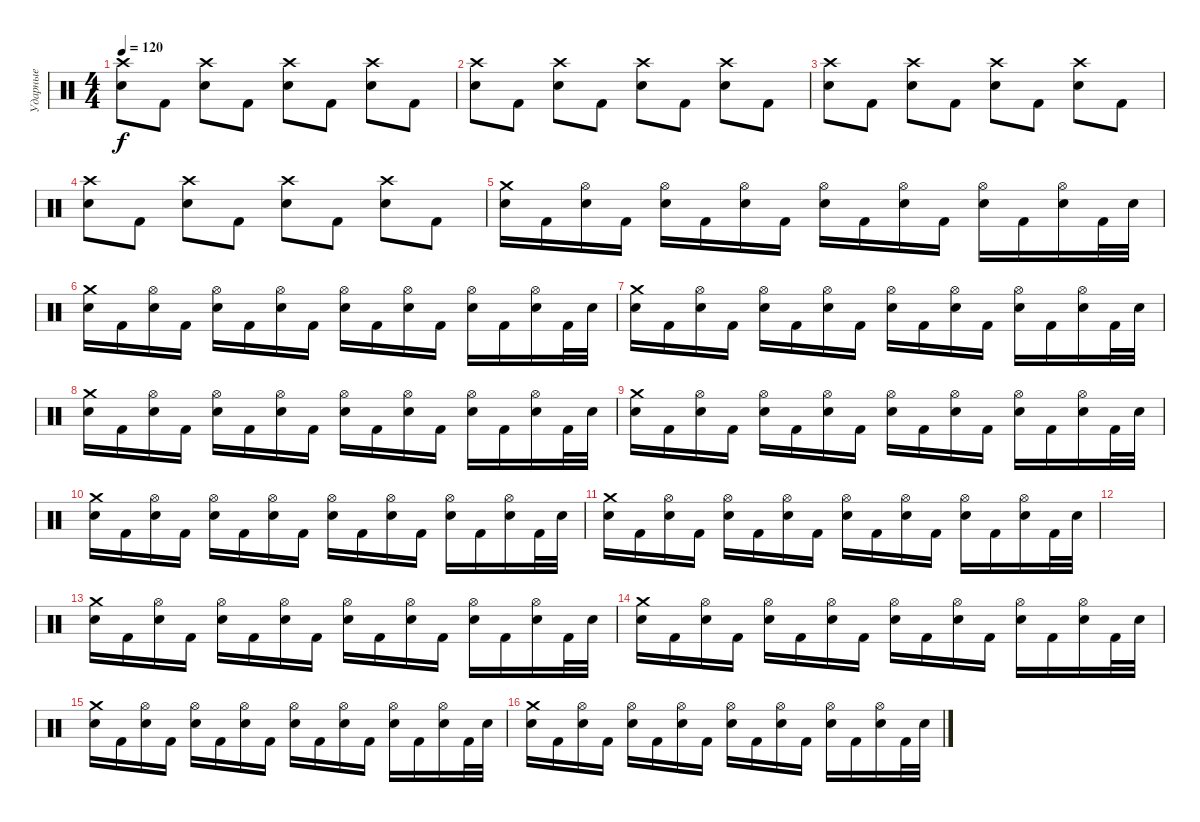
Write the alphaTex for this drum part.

\track ("Ударные" "Ударные") {instrument percussion}
\staff {score}
\articulation defaults
\ts (4 4)
\tempo 120
\clef neutral
\ks c
("Electric Snare (hit)" "Crash high (hit)").8{dy f} "Kick (hit) 2".8 ("Electric Snare (hit)" "Crash high (hit)").8 "Kick (hit) 2".8 ("Electric Snare (hit)" "Crash high (hit)").8 "Kick (hit) 2".8 ("Electric Snare (hit)" "Crash high (hit)").8 "Kick (hit) 2".8 |
("Electric Snare (hit)" "Crash high (hit)").8 "Kick (hit) 2".8 ("Electric Snare (hit)" "Crash high (hit)").8 "Kick (hit) 2".8 ("Electric Snare (hit)" "Crash high (hit)").8 "Kick (hit) 2".8 ("Electric Snare (hit)" "Crash high (hit)").8 "Kick (hit) 2".8 |
("Electric Snare (hit)" "Crash high (hit)").8 "Kick (hit) 2".8 ("Electric Snare (hit)" "Crash high (hit)").8 "Kick (hit) 2".8 ("Electric Snare (hit)" "Crash high (hit)").8 "Kick (hit) 2".8 ("Electric Snare (hit)" "Crash high (hit)").8 "Kick (hit) 2".8 |
("Electric Snare (hit)" "Crash high (hit)").8 "Kick (hit) 2".8 ("Electric Snare (hit)" "Crash high (hit)").8 "Kick (hit) 2".8 ("Electric Snare (hit)" "Crash high (hit)").8 "Kick (hit) 2".8 ("Electric Snare (hit)" "Crash high (hit)").8 "Kick (hit) 2".8 |
("Crash medium (hit)" "Electric Snare (hit)").16 "Kick (hit) 2".16 ("Hi-Hat (open)" "Electric Snare (hit)").16 "Kick (hit) 2".16 ("Hi-Hat (open)" "Electric Snare (hit)").16 "Kick (hit) 2".16 ("Hi-Hat (open)" "Electric Snare (hit)").16 "Kick (hit) 2".16 ("Hi-Hat (open)" "Electric Snare (hit)").16 "Kick (hit) 2".16 ("Hi-Hat (open)" "Electric Snare (hit)").16 "Kick (hit) 2".16 ("Hi-Hat (open)" "Electric Snare (hit)").16 "Kick (hit) 2".16 ("Hi-Hat (open)" "Electric Snare (hit)").16 "Kick (hit) 2".32 "Electric Snare (hit)".32 |
("Crash medium (hit)" "Electric Snare (hit)").16 "Kick (hit) 2".16 ("Hi-Hat (open)" "Electric Snare (hit)").16 "Kick (hit) 2".16 ("Hi-Hat (open)" "Electric Snare (hit)").16 "Kick (hit) 2".16 ("Hi-Hat (open)" "Electric Snare (hit)").16 "Kick (hit) 2".16 ("Hi-Hat (open)" "Electric Snare (hit)").16 "Kick (hit) 2".16 ("Hi-Hat (open)" "Electric Snare (hit)").16 "Kick (hit) 2".16 ("Hi-Hat (open)" "Electric Snare (hit)").16 "Kick (hit) 2".16 ("Hi-Hat (open)" "Electric Snare (hit)").16 "Kick (hit) 2".32 "Electric Snare (hit)".32 |
("Crash medium (hit)" "Electric Snare (hit)").16 "Kick (hit) 2".16 ("Hi-Hat (open)" "Electric Snare (hit)").16 "Kick (hit) 2".16 ("Hi-Hat (open)" "Electric Snare (hit)").16 "Kick (hit) 2".16 ("Hi-Hat (open)" "Electric Snare (hit)").16 "Kick (hit) 2".16 ("Hi-Hat (open)" "Electric Snare (hit)").16 "Kick (hit) 2".16 ("Hi-Hat (open)" "Electric Snare (hit)").16 "Kick (hit) 2".16 ("Hi-Hat (open)" "Electric Snare (hit)").16 "Kick (hit) 2".16 ("Hi-Hat (open)" "Electric Snare (hit)").16 "Kick (hit) 2".32 "Electric Snare (hit)".32 |
("Crash medium (hit)" "Electric Snare (hit)").16 "Kick (hit) 2".16 ("Hi-Hat (open)" "Electric Snare (hit)").16 "Kick (hit) 2".16 ("Hi-Hat (open)" "Electric Snare (hit)").16 "Kick (hit) 2".16 ("Hi-Hat (open)" "Electric Snare (hit)").16 "Kick (hit) 2".16 ("Hi-Hat (open)" "Electric Snare (hit)").16 "Kick (hit) 2".16 ("Hi-Hat (open)" "Electric Snare (hit)").16 "Kick (hit) 2".16 ("Hi-Hat (open)" "Electric Snare (hit)").16 "Kick (hit) 2".16 ("Hi-Hat (open)" "Electric Snare (hit)").16 "Kick (hit) 2".32 "Electric Snare (hit)".32 |
("Crash medium (hit)" "Electric Snare (hit)").16 "Kick (hit) 2".16 ("Hi-Hat (open)" "Electric Snare (hit)").16 "Kick (hit) 2".16 ("Hi-Hat (open)" "Electric Snare (hit)").16 "Kick (hit) 2".16 ("Hi-Hat (open)" "Electric Snare (hit)").16 "Kick (hit) 2".16 ("Hi-Hat (open)" "Electric Snare (hit)").16 "Kick (hit) 2".16 ("Hi-Hat (open)" "Electric Snare (hit)").16 "Kick (hit) 2".16 ("Hi-Hat (open)" "Electric Snare (hit)").16 "Kick (hit) 2".16 ("Hi-Hat (open)" "Electric Snare (hit)").16 "Kick (hit) 2".32 "Electric Snare (hit)".32 |
("Crash medium (hit)" "Electric Snare (hit)").16 "Kick (hit) 2".16 ("Hi-Hat (open)" "Electric Snare (hit)").16 "Kick (hit) 2".16 ("Hi-Hat (open)" "Electric Snare (hit)").16 "Kick (hit) 2".16 ("Hi-Hat (open)" "Electric Snare (hit)").16 "Kick (hit) 2".16 ("Hi-Hat (open)" "Electric Snare (hit)").16 "Kick (hit) 2".16 ("Hi-Hat (open)" "Electric Snare (hit)").16 "Kick (hit) 2".16 ("Hi-Hat (open)" "Electric Snare (hit)").16 "Kick (hit) 2".16 ("Hi-Hat (open)" "Electric Snare (hit)").16 "Kick (hit) 2".32 "Electric Snare (hit)".32 |
("Crash medium (hit)" "Electric Snare (hit)").16 "Kick (hit) 2".16 ("Hi-Hat (open)" "Electric Snare (hit)").16 "Kick (hit) 2".16 ("Hi-Hat (open)" "Electric Snare (hit)").16 "Kick (hit) 2".16 ("Hi-Hat (open)" "Electric Snare (hit)").16 "Kick (hit) 2".16 ("Hi-Hat (open)" "Electric Snare (hit)").16 "Kick (hit) 2".16 ("Hi-Hat (open)" "Electric Snare (hit)").16 "Kick (hit) 2".16 ("Hi-Hat (open)" "Electric Snare (hit)").16 "Kick (hit) 2".16 ("Hi-Hat (open)" "Electric Snare (hit)").16 "Kick (hit) 2".32 "Electric Snare (hit)".32 |
|
("Crash medium (hit)" "Electric Snare (hit)").16 "Kick (hit) 2".16 ("Hi-Hat (open)" "Electric Snare (hit)").16 "Kick (hit) 2".16 ("Hi-Hat (open)" "Electric Snare (hit)").16 "Kick (hit) 2".16 ("Hi-Hat (open)" "Electric Snare (hit)").16 "Kick (hit) 2".16 ("Hi-Hat (open)" "Electric Snare (hit)").16 "Kick (hit) 2".16 ("Hi-Hat (open)" "Electric Snare (hit)").16 "Kick (hit) 2".16 ("Hi-Hat (open)" "Electric Snare (hit)").16 "Kick (hit) 2".16 ("Hi-Hat (open)" "Electric Snare (hit)").16 "Kick (hit) 2".32 "Electric Snare (hit)".32 |
("Crash medium (hit)" "Electric Snare (hit)").16 "Kick (hit) 2".16 ("Hi-Hat (open)" "Electric Snare (hit)").16 "Kick (hit) 2".16 ("Hi-Hat (open)" "Electric Snare (hit)").16 "Kick (hit) 2".16 ("Hi-Hat (open)" "Electric Snare (hit)").16 "Kick (hit) 2".16 ("Hi-Hat (open)" "Electric Snare (hit)").16 "Kick (hit) 2".16 ("Hi-Hat (open)" "Electric Snare (hit)").16 "Kick (hit) 2".16 ("Hi-Hat (open)" "Electric Snare (hit)").16 "Kick (hit) 2".16 ("Hi-Hat (open)" "Electric Snare (hit)").16 "Kick (hit) 2".32 "Electric Snare (hit)".32 |
("Crash medium (hit)" "Electric Snare (hit)").16 "Kick (hit) 2".16 ("Hi-Hat (open)" "Electric Snare (hit)").16 "Kick (hit) 2".16 ("Hi-Hat (open)" "Electric Snare (hit)").16 "Kick (hit) 2".16 ("Hi-Hat (open)" "Electric Snare (hit)").16 "Kick (hit) 2".16 ("Hi-Hat (open)" "Electric Snare (hit)").16 "Kick (hit) 2".16 ("Hi-Hat (open)" "Electric Snare (hit)").16 "Kick (hit) 2".16 ("Hi-Hat (open)" "Electric Snare (hit)").16 "Kick (hit) 2".16 ("Hi-Hat (open)" "Electric Snare (hit)").16 "Kick (hit) 2".32 "Electric Snare (hit)".32 |
("Crash medium (hit)" "Electric Snare (hit)").16 "Kick (hit) 2".16 ("Hi-Hat (open)" "Electric Snare (hit)").16 "Kick (hit) 2".16 ("Hi-Hat (open)" "Electric Snare (hit)").16 "Kick (hit) 2".16 ("Hi-Hat (open)" "Electric Snare (hit)").16 "Kick (hit) 2".16 ("Hi-Hat (open)" "Electric Snare (hit)").16 "Kick (hit) 2".16 ("Hi-Hat (open)" "Electric Snare (hit)").16 "Kick (hit) 2".16 ("Hi-Hat (open)" "Electric Snare (hit)").16 "Kick (hit) 2".16 ("Hi-Hat (open)" "Electric Snare (hit)").16 "Kick (hit) 2".32 "Electric Snare (hit)".32
